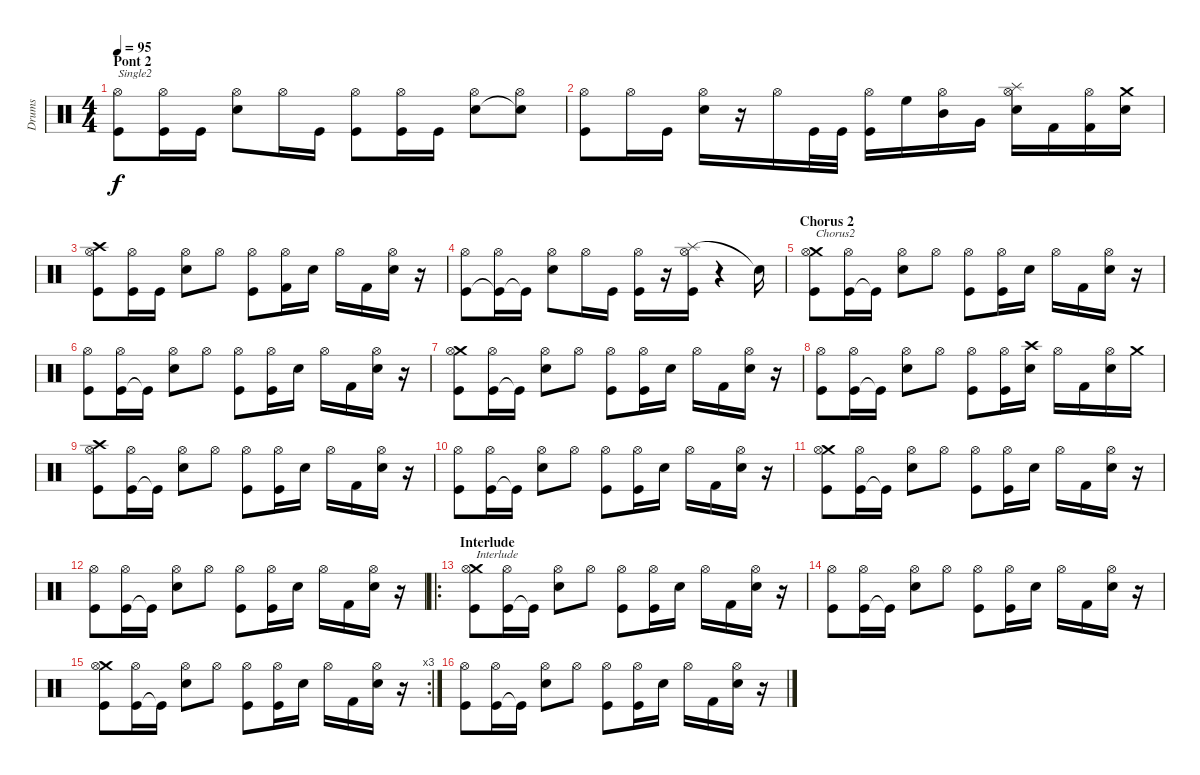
\track ("Drums" "Drums") {instrument percussion}
\staff {score}
\articulation defaults
\ts (4 4)
\section ("" "Pont 2")
\tempo 95
\clef neutral
\ks c
("Kick (hit)" "Hi-Hat (open)").8{txt "Single2" dy f} ("Kick (hit)" "Hi-Hat (open)").16 "Kick (hit)".16 ("Snare (hit) 2" "Hi-Hat (open)").8 "Hi-Hat (open)".16 "Kick (hit)".16 ("Kick (hit)" "Hi-Hat (open)").8 ("Kick (hit)" "Hi-Hat (open)").16 "Kick (hit)".16 ("Snare (hit) 2" "Hi-Hat (open)").8 ("Snare (hit)"{t} "Hi-Hat (open)").8 |
("Kick (hit)" "Hi-Hat (open)").8 "Hi-Hat (open)".16 "Kick (hit)".16 ("Snare (hit) 2" "Hi-Hat (open)").16 r.16 "Hi-Hat (open)".16 "Kick (hit)".32 "Kick (hit)".32 ("Kick (hit)" "Hi-Hat (open)").16 "High Floor Tom (hit)".16 ("Mid Tom (hit)" "Hi-Hat (open)").16 "Very Low Tom (hit)".16 ("Splash (hit)" "Snare (hit) 2" "Hi-Hat (open)").16 "Kick (hit) 2".16 ("Kick (hit) 2" "Hi-Hat (open)").16 ("Crash medium (hit)" "Snare (hit) 2").16 |
("Crash high (hit)" "Kick (hit)" "Hi-Hat (open)").8 ("Kick (hit)" "Hi-Hat (open)").16 "Kick (hit)".16 ("Snare (hit) 2" "Hi-Hat (open)").8 "Hi-Hat (open)".8 ("Kick (hit)" "Hi-Hat (open)").8 ("Kick (hit) 2" "Hi-Hat (open)").16 "Snare (hit) 2".16 "Hi-Hat (open)".16 "Kick (hit) 2".16 ("Snare (hit) 2" "Hi-Hat (open)").16 r.16 |
("Kick (hit)" "Hi-Hat (open)").8 ("Kick (hit)"{t} "Hi-Hat (open)").16 "Kick (hit)"{t}.16 ("Snare (hit) 2" "Hi-Hat (open)").8 "Hi-Hat (open)".16 "Kick (hit)".16 ("Kick (hit)" "Hi-Hat (open)").16 r.16 ("Splash (hit)" "Kick (hit)" "Hi-Hat (open)").16 r.4 "Snare (hit)"{t}.16 |
\section ("" "Chorus 2")
("Crash medium (hit)" "Kick (hit)" "Hi-Hat (open)").8{txt "Chorus2"} ("Kick (hit)" "Hi-Hat (open)").16 "Kick (hit)"{t}.16 ("Snare (hit) 2" "Hi-Hat (open)").8 "Hi-Hat (open)".8 ("Kick (hit)" "Hi-Hat (open)").8 ("Kick (hit)" "Hi-Hat (open)").16 "Snare (hit) 2".16 "Hi-Hat (open)".16 "Kick (hit) 2".16 ("Snare (hit) 2" "Hi-Hat (open)").16 r.16 |
("Kick (hit)" "Hi-Hat (open)").8 ("Kick (hit)" "Hi-Hat (open)").16 "Kick (hit)"{t}.16 ("Snare (hit) 2" "Hi-Hat (open)").8 "Hi-Hat (open)".8 ("Kick (hit)" "Hi-Hat (open)").8 ("Kick (hit)" "Hi-Hat (open)").16 "Snare (hit) 2".16 "Hi-Hat (open)".16 "Kick (hit) 2".16 ("Snare (hit) 2" "Hi-Hat (open)").16 r.16 |
("Crash medium (hit)" "Kick (hit)" "Hi-Hat (open)").8 ("Kick (hit)" "Hi-Hat (open)").16 "Kick (hit)"{t}.16 ("Snare (hit) 2" "Hi-Hat (open)").8 "Hi-Hat (open)".8 ("Kick (hit)" "Hi-Hat (open)").8 ("Kick (hit)" "Hi-Hat (open)").16 "Snare (hit) 2".16 "Hi-Hat (open)".16 "Kick (hit) 2".16 ("Snare (hit) 2" "Hi-Hat (open)").16 r.16 |
("Kick (hit)" "Hi-Hat (open)").8 ("Kick (hit)" "Hi-Hat (open)").16 "Kick (hit)"{t}.16 ("Snare (hit) 2" "Hi-Hat (open)").8 "Hi-Hat (open)".8 ("Kick (hit)" "Hi-Hat (open)").8 ("Kick (hit)" "Hi-Hat (open)").16 ("Crash high (hit)" "Snare (hit) 2").16 "Hi-Hat (open)".16 "Kick (hit) 2".16 ("Snare (hit) 2" "Hi-Hat (open)").16 "Crash medium (hit)".16 |
("Crash high (hit)" "Kick (hit)" "Hi-Hat (open)").8 ("Kick (hit)" "Hi-Hat (open)").16 "Kick (hit)"{t}.16 ("Snare (hit) 2" "Hi-Hat (open)").8 "Hi-Hat (open)".8 ("Kick (hit)" "Hi-Hat (open)").8 ("Kick (hit)" "Hi-Hat (open)").16 "Snare (hit) 2".16 "Hi-Hat (open)".16 "Kick (hit) 2".16 ("Snare (hit) 2" "Hi-Hat (open)").16 r.16 |
("Kick (hit)" "Hi-Hat (open)").8 ("Kick (hit)" "Hi-Hat (open)").16 "Kick (hit)"{t}.16 ("Snare (hit) 2" "Hi-Hat (open)").8 "Hi-Hat (open)".8 ("Kick (hit)" "Hi-Hat (open)").8 ("Kick (hit)" "Hi-Hat (open)").16 "Snare (hit) 2".16 "Hi-Hat (open)".16 "Kick (hit) 2".16 ("Snare (hit) 2" "Hi-Hat (open)").16 r.16 |
("Crash medium (hit)" "Kick (hit)" "Hi-Hat (open)").8 ("Kick (hit)" "Hi-Hat (open)").16 "Kick (hit)"{t}.16 ("Snare (hit) 2" "Hi-Hat (open)").8 "Hi-Hat (open)".8 ("Kick (hit)" "Hi-Hat (open)").8 ("Kick (hit)" "Hi-Hat (open)").16 "Snare (hit) 2".16 "Hi-Hat (open)".16 "Kick (hit) 2".16 ("Snare (hit) 2" "Hi-Hat (open)").16 r.16 |
("Kick (hit)" "Hi-Hat (open)").8 ("Kick (hit)" "Hi-Hat (open)").16 "Kick (hit)"{t}.16 ("Snare (hit) 2" "Hi-Hat (open)").8 "Hi-Hat (open)".8 ("Kick (hit)" "Hi-Hat (open)").8 ("Kick (hit)" "Hi-Hat (open)").16 "Snare (hit) 2".16 "Hi-Hat (open)".16 "Kick (hit) 2".16 ("Snare (hit) 2" "Hi-Hat (open)").16 r.16 |
\ro
\section ("" "Interlude")
("Crash medium (hit)" "Kick (hit)" "Hi-Hat (open)").8{txt "Interlude"} ("Kick (hit)" "Hi-Hat (open)").16 "Kick (hit)"{t}.16 ("Snare (hit) 2" "Hi-Hat (open)").8 "Hi-Hat (open)".8 ("Kick (hit)" "Hi-Hat (open)").8 ("Kick (hit)" "Hi-Hat (open)").16 "Snare (hit) 2".16 "Hi-Hat (open)".16 "Kick (hit) 2".16 ("Snare (hit) 2" "Hi-Hat (open)").16 r.16 |
("Kick (hit)" "Hi-Hat (open)").8 ("Kick (hit)" "Hi-Hat (open)").16 "Kick (hit)"{t}.16 ("Snare (hit) 2" "Hi-Hat (open)").8 "Hi-Hat (open)".8 ("Kick (hit)" "Hi-Hat (open)").8 ("Kick (hit)" "Hi-Hat (open)").16 "Snare (hit) 2".16 "Hi-Hat (open)".16 "Kick (hit) 2".16 ("Snare (hit) 2" "Hi-Hat (open)").16 r.16 |
\rc 3
("Crash medium (hit)" "Kick (hit)" "Hi-Hat (open)").8 ("Kick (hit)" "Hi-Hat (open)").16 "Kick (hit)"{t}.16 ("Snare (hit) 2" "Hi-Hat (open)").8 "Hi-Hat (open)".8 ("Kick (hit)" "Hi-Hat (open)").8 ("Kick (hit)" "Hi-Hat (open)").16 "Snare (hit) 2".16 "Hi-Hat (open)".16 "Kick (hit) 2".16 ("Snare (hit) 2" "Hi-Hat (open)").16 r.16 |
("Kick (hit)" "Hi-Hat (open)").8 ("Kick (hit)" "Hi-Hat (open)").16 "Kick (hit)"{t}.16 ("Snare (hit) 2" "Hi-Hat (open)").8 "Hi-Hat (open)".8 ("Kick (hit)" "Hi-Hat (open)").8 ("Kick (hit)" "Hi-Hat (open)").16 "Snare (hit) 2".16 "Hi-Hat (open)".16 "Kick (hit) 2".16 ("Snare (hit) 2" "Hi-Hat (open)").16 r.16
